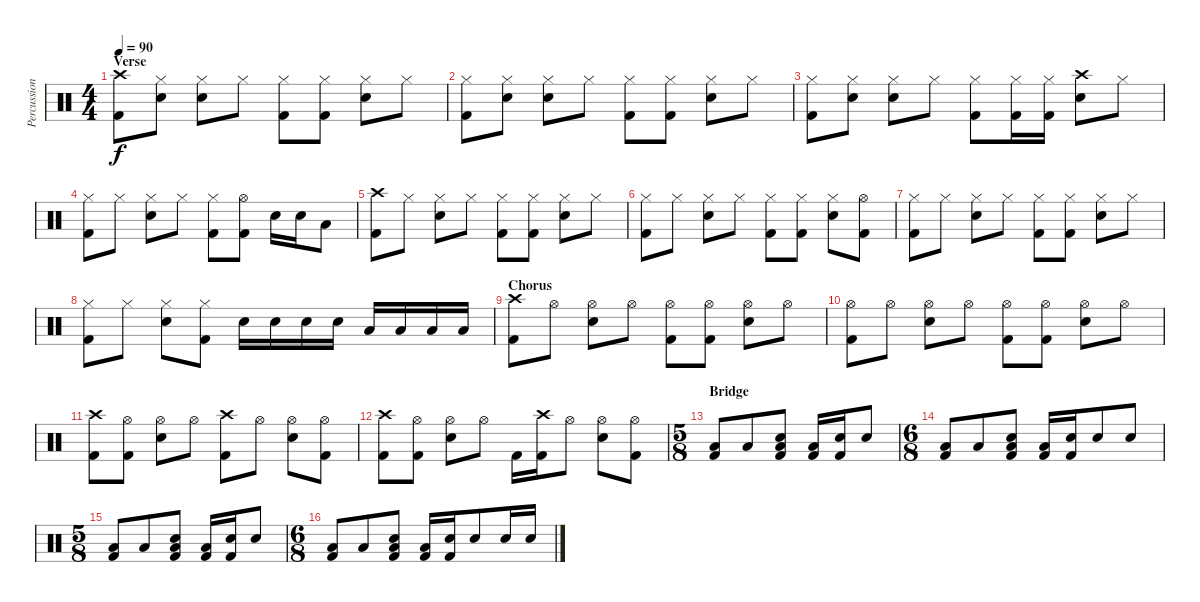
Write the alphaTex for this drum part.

\track ("Percussion" "Percussion") {instrument percussion}
\staff {score}
\articulation defaults
\ts (4 4)
\section ("" "Verse")
\tempo 90
\clef neutral
\ks c
("Crash high (hit)" "Kick (hit) 2").8{dy f} ("Hi-Hat (closed)" "Electric Snare (hit)").8 ("Hi-Hat (closed)" "Electric Snare (hit)").8 "Hi-Hat (closed)".8 ("Hi-Hat (closed)" "Kick (hit) 2").8 ("Hi-Hat (closed)" "Kick (hit) 2").8 ("Hi-Hat (closed)" "Electric Snare (hit)").8 "Hi-Hat (closed)".8 |
("Hi-Hat (closed)" "Kick (hit) 2").8 ("Hi-Hat (closed)" "Electric Snare (hit)").8 ("Hi-Hat (closed)" "Electric Snare (hit)").8 "Hi-Hat (closed)".8 ("Hi-Hat (closed)" "Kick (hit) 2").8 ("Hi-Hat (closed)" "Kick (hit) 2").8 ("Hi-Hat (closed)" "Electric Snare (hit)").8 "Hi-Hat (closed)".8 |
("Hi-Hat (closed)" "Kick (hit) 2").8 ("Hi-Hat (closed)" "Electric Snare (hit)").8 ("Hi-Hat (closed)" "Electric Snare (hit)").8 "Hi-Hat (closed)".8 ("Hi-Hat (closed)" "Kick (hit) 2").8 ("Hi-Hat (closed)" "Kick (hit) 2").16 ("Hi-Hat (closed)" "Kick (hit) 2").16 ("Crash high (hit)" "Electric Snare (hit)").8 "Hi-Hat (closed)".8 |
("Hi-Hat (closed)" "Kick (hit) 2").8 "Hi-Hat (closed)".8 ("Hi-Hat (closed)" "Electric Snare (hit)").8 "Hi-Hat (closed)".8 ("Hi-Hat (closed)" "Kick (hit) 2").8 ("Hi-Hat (open)" "Kick (hit) 2").8 "Electric Snare (hit)".16 "Electric Snare (hit)".16 "Low Floor Tom (hit)".8 |
("Crash high (hit)" "Kick (hit) 2").8 "Hi-Hat (closed)".8 ("Hi-Hat (closed)" "Electric Snare (hit)").8 "Hi-Hat (closed)".8 ("Hi-Hat (closed)" "Kick (hit) 2").8 ("Hi-Hat (closed)" "Kick (hit) 2").8 ("Hi-Hat (closed)" "Electric Snare (hit)").8 "Hi-Hat (closed)".8 |
("Hi-Hat (closed)" "Kick (hit) 2").8 "Hi-Hat (closed)".8 ("Hi-Hat (closed)" "Electric Snare (hit)").8 "Hi-Hat (closed)".8 ("Hi-Hat (closed)" "Kick (hit) 2").8 ("Hi-Hat (closed)" "Kick (hit) 2").8 ("Hi-Hat (closed)" "Electric Snare (hit)").8 ("Hi-Hat (open)" "Kick (hit) 2").8 |
("Hi-Hat (closed)" "Kick (hit) 2").8 "Hi-Hat (closed)".8 ("Hi-Hat (closed)" "Electric Snare (hit)").8 "Hi-Hat (closed)".8 ("Hi-Hat (closed)" "Kick (hit) 2").8 ("Hi-Hat (closed)" "Kick (hit) 2").8 ("Hi-Hat (closed)" "Electric Snare (hit)").8 "Hi-Hat (closed)".8 |
("Hi-Hat (closed)" "Kick (hit) 2").8 "Hi-Hat (closed)".8 ("Hi-Hat (closed)" "Electric Snare (hit)").8 ("Hi-Hat (closed)" "Kick (hit) 2").8 "Electric Snare (hit)".16 "Electric Snare (hit)".16 "Electric Snare (hit)".16 "Electric Snare (hit)".16 "Low Floor Tom (hit)".16 "Low Floor Tom (hit)".16 "Low Tom (hit)".16 "Low Tom (hit)".16 |
\section ("" "Chorus")
("Crash high (hit)" "Kick (hit) 2").8 "Hi-Hat (open)".8 ("Hi-Hat (open)" "Electric Snare (hit)").8 "Hi-Hat (open)".8 ("Hi-Hat (open)" "Kick (hit) 2").8 ("Hi-Hat (open)" "Kick (hit) 2").8 ("Hi-Hat (open)" "Electric Snare (hit)").8 "Hi-Hat (open)".8 |
("Hi-Hat (open)" "Kick (hit) 2").8 "Hi-Hat (open)".8 ("Hi-Hat (open)" "Electric Snare (hit)").8 "Hi-Hat (open)".8 ("Hi-Hat (open)" "Kick (hit) 2").8 ("Hi-Hat (open)" "Kick (hit) 2").8 ("Hi-Hat (open)" "Electric Snare (hit)").8 "Hi-Hat (open)".8 |
("Crash high (hit)" "Kick (hit) 2").8 ("Hi-Hat (open)" "Kick (hit) 2").8 ("Hi-Hat (open)" "Electric Snare (hit)").8 "Hi-Hat (open)".8 ("Crash high (hit)" "Kick (hit) 2").8 "Hi-Hat (open)".8 ("Hi-Hat (open)" "Electric Snare (hit)").8 ("Hi-Hat (open)" "Kick (hit) 2").8 |
("Crash high (hit)" "Kick (hit) 2").8 ("Hi-Hat (open)" "Kick (hit) 2").8 ("Hi-Hat (open)" "Electric Snare (hit)").8 "Hi-Hat (open)".8 "Kick (hit) 2".16 ("Crash high (hit)" "Kick (hit) 2").16 "Hi-Hat (open)".8 ("Hi-Hat (open)" "Electric Snare (hit)").8 ("Hi-Hat (open)" "Kick (hit) 2").8 |
\ts (5 8)
\section ("" "Bridge")
("Kick (hit) 2" "Low Tom (hit)").8 "Low Tom (hit)".8 ("Electric Snare (hit)" "Kick (hit) 2" "Low Tom (hit)").8 ("Kick (hit) 2" "Low Tom (hit)").16 ("Electric Snare (hit)" "Kick (hit) 2").16 "Electric Snare (hit)".8 |
\ts (6 8)
("Kick (hit) 2" "Low Tom (hit)").8 "Low Tom (hit)".8 ("Electric Snare (hit)" "Kick (hit) 2" "Low Tom (hit)").8 ("Kick (hit) 2" "Low Tom (hit)").16 ("Electric Snare (hit)" "Kick (hit) 2").16 "Electric Snare (hit)".8 "Electric Snare (hit)".8 |
\ts (5 8)
("Kick (hit) 2" "Low Tom (hit)").8 "Low Tom (hit)".8 ("Electric Snare (hit)" "Kick (hit) 2" "Low Tom (hit)").8 ("Kick (hit) 2" "Low Tom (hit)").16 ("Electric Snare (hit)" "Kick (hit) 2").16 "Electric Snare (hit)".8 |
\ts (6 8)
("Kick (hit) 2" "Low Tom (hit)").8 "Low Tom (hit)".8 ("Electric Snare (hit)" "Kick (hit) 2" "Low Tom (hit)").8 ("Kick (hit) 2" "Low Tom (hit)").16 ("Electric Snare (hit)" "Kick (hit) 2").16 "Electric Snare (hit)".8 "Electric Snare (hit)".16 "Electric Snare (hit)".16
